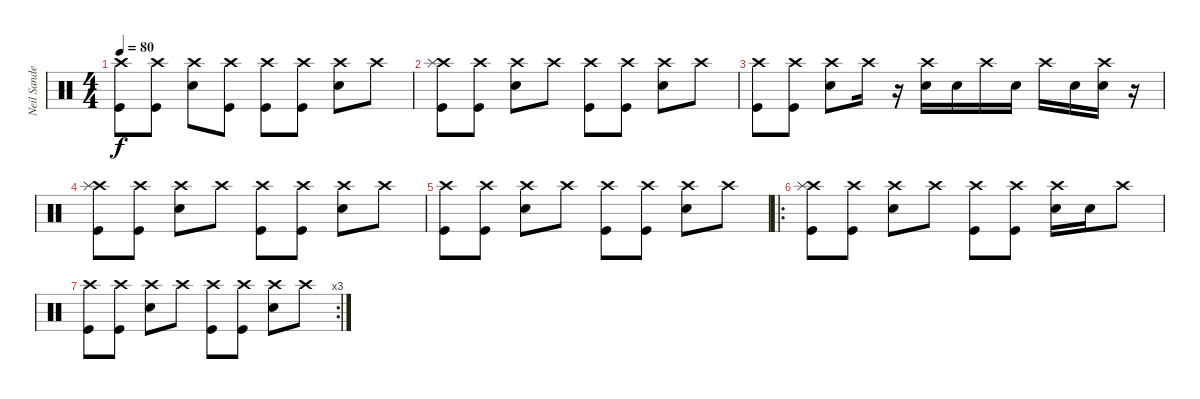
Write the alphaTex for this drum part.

\track ("Neil Sanderson" "Neil Sande") {instrument percussion}
\staff {score}
\articulation defaults
\ts (4 4)
\tempo 80
\clef neutral
\ks c
("Crash high (hit)" "Kick (hit)").8{dy f} ("Crash high (hit)" "Kick (hit)").8 ("Crash high (hit)" "Snare (hit) 2").8 ("Crash high (hit)" "Kick (hit)").8 ("Crash high (hit)" "Kick (hit)").8 ("Crash high (hit)" "Kick (hit)").8 ("Crash high (hit)" "Snare (hit) 2").8 "Crash high (hit)".8 |
("Crash high (hit)" "Splash (hit)" "Kick (hit)").8 ("Crash high (hit)" "Kick (hit)").8 ("Crash high (hit)" "Snare (hit) 2").8 "Crash high (hit)".8 ("Crash high (hit)" "Kick (hit)").8 ("Crash high (hit)" "Kick (hit)").8 ("Crash high (hit)" "Snare (hit) 2").8 "Crash high (hit)".8 |
("Crash high (hit)" "Kick (hit)").8 ("Crash high (hit)" "Kick (hit)").8 ("Crash high (hit)" "Snare (hit) 2").8 "Crash high (hit)".16 r.16 ("Crash high (hit)" "Snare (hit) 2").16 "Snare (hit) 2".16 "Crash high (hit)".16 "Snare (hit) 2".16 "Crash high (hit)".16 "Snare (hit) 2".16 ("Crash high (hit)" "Snare (hit) 2").16 r.16 |
("Crash high (hit)" "Splash (hit)" "Kick (hit)").8 ("Crash high (hit)" "Kick (hit)").8 ("Crash high (hit)" "Snare (hit) 2").8 "Crash high (hit)".8 ("Crash high (hit)" "Kick (hit)").8 ("Crash high (hit)" "Kick (hit)").8 ("Crash high (hit)" "Snare (hit) 2").8 "Crash high (hit)".8 |
("Crash high (hit)" "Kick (hit)").8 ("Crash high (hit)" "Kick (hit)").8 ("Crash high (hit)" "Snare (hit) 2").8 "Crash high (hit)".8 ("Crash high (hit)" "Kick (hit)").8 ("Crash high (hit)" "Kick (hit)").8 ("Crash high (hit)" "Snare (hit) 2").8 "Crash high (hit)".8 |
\ro
("Crash high (hit)" "Splash (hit)" "Kick (hit)").8 ("Crash high (hit)" "Kick (hit)").8 ("Crash high (hit)" "Snare (hit) 2").8 "Crash high (hit)".8 ("Crash high (hit)" "Kick (hit)").8 ("Crash high (hit)" "Kick (hit)").8 ("Crash high (hit)" "Snare (hit) 2").16 "Snare (hit) 2".16 "Crash high (hit)".8 |
\rc 3
("Crash high (hit)" "Kick (hit)").8 ("Crash high (hit)" "Kick (hit)").8 ("Crash high (hit)" "Snare (hit) 2").8 "Crash high (hit)".8 ("Crash high (hit)" "Kick (hit)").8 ("Crash high (hit)" "Kick (hit)").8 ("Crash high (hit)" "Snare (hit) 2").8 "Crash high (hit)".8
